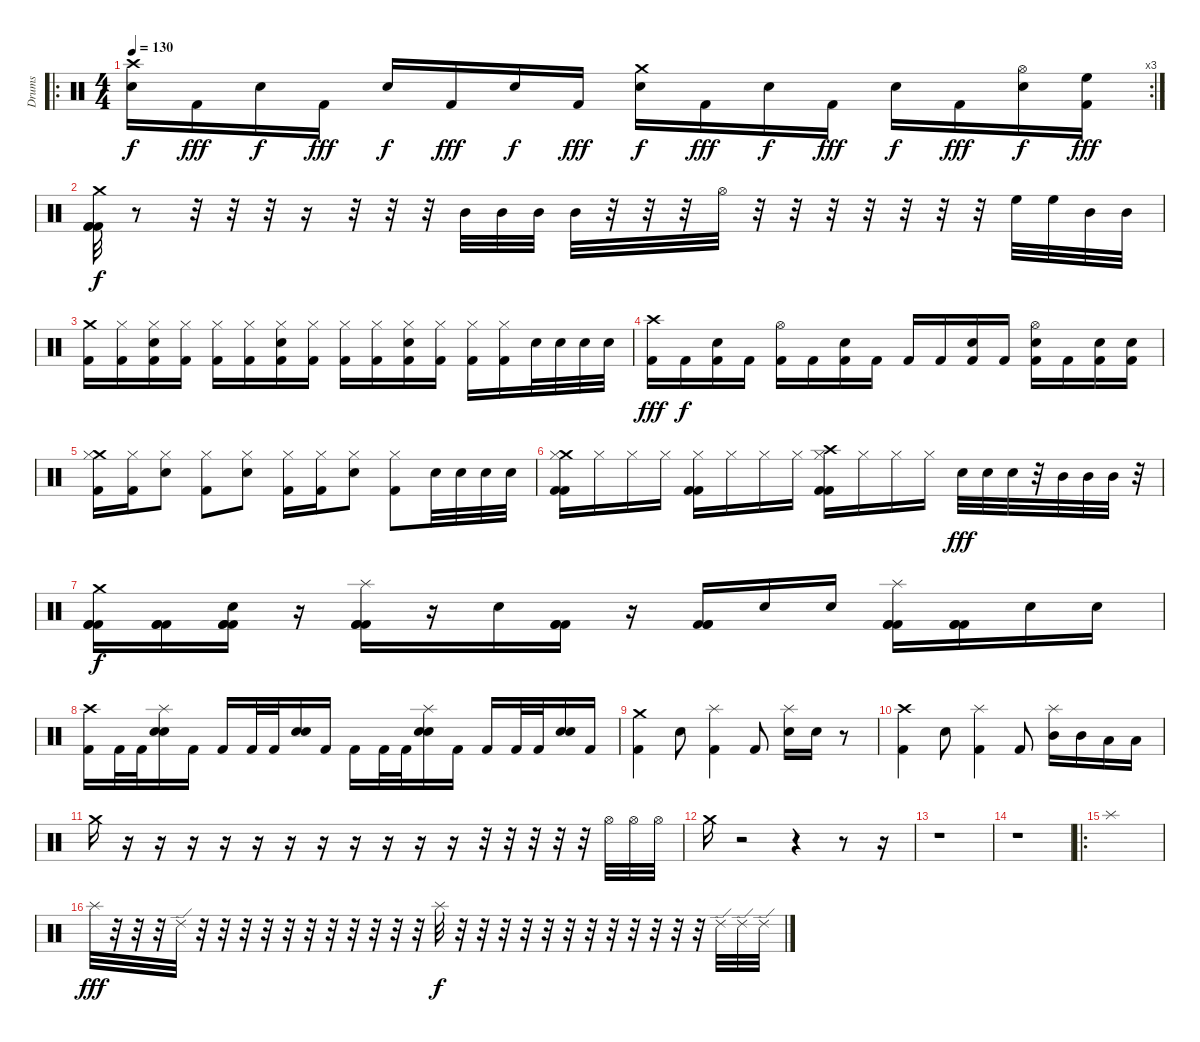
\track ("Drums" "Drums") {instrument percussion}
\staff {score}
\articulation defaults
\ro
\rc 3
\ts (4 4)
\tempo 130
\clef neutral
\ks c
("Snare (hit) 2" "Crash high (hit)").16{dy f} "Kick (hit) 2".16{dy fff} "Snare (hit) 2".16{dy f} "Kick (hit) 2".16{dy fff} "Snare (hit) 2".16{dy f} "Kick (hit) 2".16{dy fff} "Snare (hit) 2".16{dy f} "Kick (hit) 2".16{dy fff} ("Snare (hit) 2" "Crash medium (hit)").16{dy f} "Kick (hit) 2".16{dy fff} "Snare (hit) 2".16{dy f} "Kick (hit) 2".16{dy fff} "Snare (hit) 2".16{dy f} "Kick (hit) 2".16{dy fff} ("Snare (hit) 2" "Hi-Hat (open)").16{dy f} ("High Floor Tom (hit)" "Kick (hit) 2").16{dy fff} |
("Crash medium (hit)" "Kick (hit) 2" "Kick (hit) 2" "Kick (hit) 2").32{dy f} r.8 r.32 r.32 r.32 r.16 r.32 r.32 r.32 "Mid Tom (hit)".32 "Mid Tom (hit)".32 "Mid Tom (hit)".32 "Mid Tom (hit)".32 r.32 r.32 r.32 "Hi-Hat (open)".32 r.32 r.32 r.32 r.32 r.32 r.32 r.32 "High Floor Tom (hit)".32 "High Floor Tom (hit)".32 "Mid Tom (hit)".32 "Mid Tom (hit)".32 |
("Crash medium (hit)" "Kick (hit) 2").16 ("Hi-Hat (closed)" "Kick (hit) 2").16 ("Snare (hit) 2" "Hi-Hat (closed)" "Kick (hit) 2").16 ("Hi-Hat (closed)" "Kick (hit) 2").16 ("Hi-Hat (closed)" "Kick (hit) 2").16 ("Hi-Hat (closed)" "Kick (hit) 2").16 ("Snare (hit) 2" "Hi-Hat (closed)" "Kick (hit) 2").16 ("Hi-Hat (closed)" "Kick (hit) 2").16 ("Hi-Hat (closed)" "Kick (hit) 2").16 ("Hi-Hat (closed)" "Kick (hit) 2").16 ("Snare (hit) 2" "Hi-Hat (closed)" "Kick (hit) 2").16 ("Hi-Hat (closed)" "Kick (hit) 2").16 ("Hi-Hat (closed)" "Kick (hit) 2").16 ("Hi-Hat (closed)" "Kick (hit) 2").16 "Snare (hit) 2".32 "Snare (hit) 2".32 "Snare (hit) 2".32 "Snare (hit) 2".32 |
("Crash high (hit)" "Kick (hit) 2").16{dy fff} "Kick (hit) 2".16{dy f} ("Snare (hit) 2" "Kick (hit) 2").16 "Kick (hit) 2".16 ("Hi-Hat (open)" "Kick (hit) 2").16 "Kick (hit) 2".16 ("Snare (hit) 2" "Kick (hit) 2").16 "Kick (hit) 2".16 "Kick (hit) 2".16 "Kick (hit) 2".16 ("Snare (hit) 2" "Kick (hit) 2").16 "Kick (hit) 2".16 ("Snare (hit) 2" "Hi-Hat (open)" "Kick (hit) 2").16 "Kick (hit) 2".16 ("Snare (hit) 2" "Kick (hit) 2").16 ("Snare (hit) 2" "Kick (hit) 2").16 |
("Crash medium (hit)" "Hi-Hat (closed)" "Kick (hit) 2").16 ("Hi-Hat (closed)" "Kick (hit) 2").16 ("Snare (hit) 2" "Hi-Hat (closed)").8 ("Hi-Hat (closed)" "Kick (hit) 2").8 ("Snare (hit) 2" "Hi-Hat (closed)").8 ("Hi-Hat (closed)" "Kick (hit) 2").16 ("Hi-Hat (closed)" "Kick (hit) 2").16 ("Snare (hit) 2" "Hi-Hat (closed)").8 ("Hi-Hat (closed)" "Kick (hit) 2").8 "Snare (hit) 2".32 "Snare (hit) 2".32 "Snare (hit) 2".32 "Snare (hit) 2".32 |
("Crash medium (hit)" "Kick (hit) 2" "Kick (hit) 2" "Hi-Hat (closed)").16 "Hi-Hat (closed)".16 "Hi-Hat (closed)".16 "Hi-Hat (closed)".16 ("Kick (hit) 2" "Kick (hit) 2" "Hi-Hat (closed)").16 "Hi-Hat (closed)".16 "Hi-Hat (closed)".16 "Hi-Hat (closed)".16 ("Crash high (hit)" "Kick (hit) 2" "Kick (hit) 2" "Hi-Hat (closed)").16 "Hi-Hat (closed)".16 "Hi-Hat (closed)".16 "Hi-Hat (closed)".16 "Snare (hit) 2".32{dy fff} "Snare (hit) 2".32 "Snare (hit) 2".32 r.32 "Mid Tom (hit)".32 "Mid Tom (hit)".32 "Mid Tom (hit)".32 r.32 |
("Crash medium (hit)" "Kick (hit) 2" "Kick (hit) 2" "Kick (hit) 2").16{dy f} ("Kick (hit) 2" "Kick (hit) 2" "Kick (hit) 2").16 ("Snare (hit) 2" "Kick (hit) 2" "Kick (hit) 2" "Kick (hit) 2").16 r.16 ("Splash (hit)" "Kick (hit) 2" "Kick (hit) 2" "Kick (hit) 2").16 r.16 "Snare (hit) 2".16 ("Kick (hit) 2" "Kick (hit) 2" "Kick (hit) 2").16 r.16 ("Kick (hit) 2" "Kick (hit) 2" "Kick (hit) 2").16 "Snare (hit) 2".16 "Snare (hit) 2".16 ("Splash (hit)" "Kick (hit) 2" "Kick (hit) 2" "Kick (hit) 2").16 ("Kick (hit) 2" "Kick (hit) 2" "Kick (hit) 2").16 "Snare (hit) 2".16 "Snare (hit) 2".16 |
("Crash high (hit)" "Kick (hit) 2").16 "Kick (hit) 2".32 "Kick (hit) 2".32 ("Snare (hit) 2" "Snare (hit) 2" "Splash (hit)").16 "Kick (hit) 2".16 "Kick (hit) 2".16 "Kick (hit) 2".32 "Kick (hit) 2".32 ("Snare (hit) 2" "Snare (hit) 2").16 "Kick (hit) 2".16 "Kick (hit) 2".16 "Kick (hit) 2".32 "Kick (hit) 2".32 ("Snare (hit) 2" "Snare (hit) 2" "Splash (hit)").16 "Kick (hit) 2".16 "Kick (hit) 2".16 "Kick (hit) 2".32 "Kick (hit) 2".32 ("Snare (hit) 2" "Snare (hit) 2").16 "Kick (hit) 2".16 |
("Crash medium (hit)" "Kick (hit) 2").4 "Snare (hit) 2".8 ("Splash (hit)" "Kick (hit) 2").4 "Kick (hit) 2".8 ("Snare (hit) 2" "Splash (hit)").16 "Snare (hit) 2".16 r.8 |
("Crash high (hit)" "Kick (hit) 2").4 "Snare (hit) 2".8 ("Splash (hit)" "Kick (hit) 2").4 "Kick (hit) 2".8 ("Mid Tom (hit)" "Splash (hit)").16 "Mid Tom (hit)".16 "Low Tom (hit)".16 "Low Tom (hit)".16 |
"Crash medium (hit)".16 r.16 r.16 r.16 r.16 r.16 r.16 r.16 r.16 r.16 r.16 r.16 r.32 r.32 r.32 r.32 r.32 "Hi-Hat (open)".32 "Hi-Hat (open)".32 "Hi-Hat (open)".32 |
"Crash medium (hit)".16 r.2 r.4 r.8 r.16 |
r.1 |
r.1 |
\ro "Splash (hit)".1
|
"Splash (hit)".32{dy fff} r.32 r.32 r.32 "Ride (edge) 2".32 r.32 r.32 r.32 r.32 r.32 r.32 r.32 r.32 r.32 r.32 r.32 "Splash (hit)".32{dy f} r.32 r.32 r.32 r.32 r.32 r.32 r.32 r.32 r.32 r.32 r.32 r.32 "Ride (edge) 2".32 "Ride (edge) 2".32 "Ride (edge) 2".32
